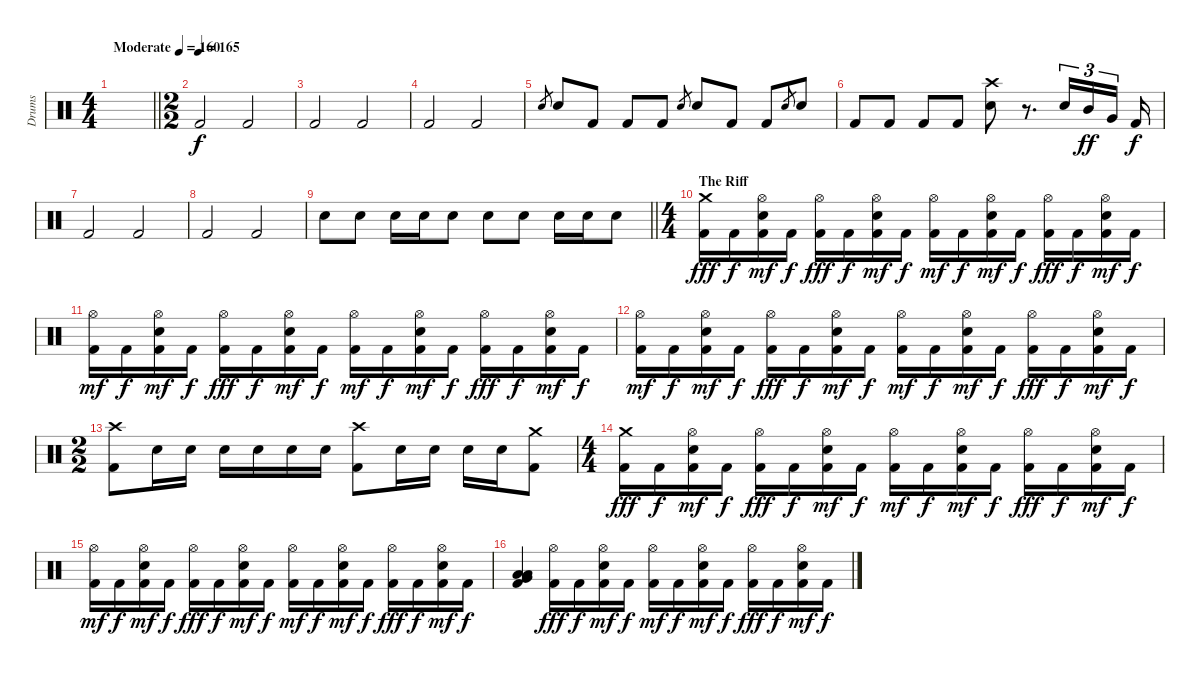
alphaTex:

\track ("Drums" "Drums") {instrument percussion}
\staff {score}
\articulation defaults
\ts (4 4)
\tempo (160 "Moderate")
\clef neutral
\barLineRight lightlight
\ks c
|
\ts (2 2)
\tempo (165)
"Kick (hit) 2".2 "Kick (hit) 2".2 |
"Kick (hit) 2".2 "Kick (hit) 2".2 |
"Kick (hit) 2".2 "Kick (hit) 2".2 |
"Snare (hit) 2".8{gr} "Snare (hit) 2".8 "Kick (hit) 2".8 "Kick (hit) 2".8 "Kick (hit) 2".8 "Snare (hit) 2".8{gr} "Snare (hit) 2".8 "Kick (hit) 2".8 "Kick (hit) 2".8 "Snare (hit) 2".8{gr} "Snare (hit) 2".8 |
"Kick (hit) 2".8 "Kick (hit) 2".8 "Kick (hit) 2".8 "Kick (hit) 2".8 ("Crash high (hit)" "Electric Snare (hit)").8 r.8{d} "Electric Snare (hit)".16{tu (3 2)} "Mid Tom (hit)".16{tu (3 2) dy ff} "Very Low Tom (hit)".16{tu (3 2) beam splitsecondary} "Kick (hit) 2".16{dy f} |
"Kick (hit) 2".2 "Kick (hit) 2".2 |
"Kick (hit) 2".2 "Kick (hit) 2".2 |
\barLineRight lightlight "Electric Snare (hit)".8 "Electric Snare (hit)".8 "Electric Snare (hit)".16 "Electric Snare (hit)".16 "Electric Snare (hit)".8 "Electric Snare (hit)".8 "Electric Snare (hit)".8 "Electric Snare (hit)".16 "Electric Snare (hit)".16 "Electric Snare (hit)".8
|
\ts (4 4)
\section ("" "The Riff")
("Crash medium (hit)" "Kick (hit) 2").16{dy fff} "Kick (hit) 2".16{dy f} ("Hi-Hat (open)" "Electric Snare (hit)" "Kick (hit) 2").16{dy mf} "Kick (hit) 2".16{dy f} ("Hi-Hat (open)" "Kick (hit) 2").16{dy fff} "Kick (hit) 2".16{dy f} ("Hi-Hat (open)" "Electric Snare (hit)" "Kick (hit) 2").16{dy mf} "Kick (hit) 2".16{dy f} ("Hi-Hat (open)" "Kick (hit) 2").16{dy mf} "Kick (hit) 2".16{dy f} ("Hi-Hat (open)" "Electric Snare (hit)" "Kick (hit) 2").16{dy mf} "Kick (hit) 2".16{dy f} ("Hi-Hat (open)" "Kick (hit) 2").16{dy fff} "Kick (hit) 2".16{dy f} ("Hi-Hat (open)" "Electric Snare (hit)" "Kick (hit) 2").16{dy mf} "Kick (hit) 2".16{dy f} |
("Hi-Hat (open)" "Kick (hit) 2").16{dy mf} "Kick (hit) 2".16{dy f} ("Hi-Hat (open)" "Electric Snare (hit)" "Kick (hit) 2").16{dy mf} "Kick (hit) 2".16{dy f} ("Hi-Hat (open)" "Kick (hit) 2").16{dy fff} "Kick (hit) 2".16{dy f} ("Hi-Hat (open)" "Electric Snare (hit)" "Kick (hit) 2").16{dy mf} "Kick (hit) 2".16{dy f} ("Hi-Hat (open)" "Kick (hit) 2").16{dy mf} "Kick (hit) 2".16{dy f} ("Hi-Hat (open)" "Electric Snare (hit)" "Kick (hit) 2").16{dy mf} "Kick (hit) 2".16{dy f} ("Hi-Hat (open)" "Kick (hit) 2").16{dy fff} "Kick (hit) 2".16{dy f} ("Hi-Hat (open)" "Electric Snare (hit)" "Kick (hit) 2").16{dy mf} "Kick (hit) 2".16{dy f} |
("Hi-Hat (open)" "Kick (hit) 2").16{dy mf} "Kick (hit) 2".16{dy f} ("Hi-Hat (open)" "Electric Snare (hit)" "Kick (hit) 2").16{dy mf} "Kick (hit) 2".16{dy f} ("Hi-Hat (open)" "Kick (hit) 2").16{dy fff} "Kick (hit) 2".16{dy f} ("Hi-Hat (open)" "Electric Snare (hit)" "Kick (hit) 2").16{dy mf} "Kick (hit) 2".16{dy f} ("Hi-Hat (open)" "Kick (hit) 2").16{dy mf} "Kick (hit) 2".16{dy f} ("Hi-Hat (open)" "Electric Snare (hit)" "Kick (hit) 2").16{dy mf} "Kick (hit) 2".16{dy f} ("Hi-Hat (open)" "Kick (hit) 2").16{dy fff} "Kick (hit) 2".16{dy f} ("Hi-Hat (open)" "Electric Snare (hit)" "Kick (hit) 2").16{dy mf} "Kick (hit) 2".16{dy f} |
\ts (2 2)
("Crash high (hit)" "Kick (hit) 2").8 "Snare (hit) 2".16 "Snare (hit) 2".16 "Snare (hit) 2".16 "Snare (hit) 2".16 "Snare (hit) 2".16 "Snare (hit) 2".16 ("Crash high (hit)" "Kick (hit) 2").8 "Snare (hit) 2".16 "Snare (hit) 2".16 "Snare (hit) 2".16 "Snare (hit) 2".16 ("Crash medium (hit)" "Kick (hit) 2").8 |
\ts (4 4)
("Crash medium (hit)" "Kick (hit) 2").16{dy fff} "Kick (hit) 2".16{dy f} ("Hi-Hat (open)" "Electric Snare (hit)" "Kick (hit) 2").16{dy mf} "Kick (hit) 2".16{dy f} ("Hi-Hat (open)" "Kick (hit) 2").16{dy fff} "Kick (hit) 2".16{dy f} ("Hi-Hat (open)" "Electric Snare (hit)" "Kick (hit) 2").16{dy mf} "Kick (hit) 2".16{dy f} ("Hi-Hat (open)" "Kick (hit) 2").16{dy mf} "Kick (hit) 2".16{dy f} ("Hi-Hat (open)" "Electric Snare (hit)" "Kick (hit) 2").16{dy mf} "Kick (hit) 2".16{dy f} ("Hi-Hat (open)" "Kick (hit) 2").16{dy fff} "Kick (hit) 2".16{dy f} ("Hi-Hat (open)" "Electric Snare (hit)" "Kick (hit) 2").16{dy mf} "Kick (hit) 2".16{dy f} |
("Hi-Hat (open)" "Kick (hit) 2").16{dy mf} "Kick (hit) 2".16{dy f} ("Hi-Hat (open)" "Electric Snare (hit)" "Kick (hit) 2").16{dy mf} "Kick (hit) 2".16{dy f} ("Hi-Hat (open)" "Kick (hit) 2").16{dy fff} "Kick (hit) 2".16{dy f} ("Hi-Hat (open)" "Electric Snare (hit)" "Kick (hit) 2").16{dy mf} "Kick (hit) 2".16{dy f} ("Hi-Hat (open)" "Kick (hit) 2").16{dy mf} "Kick (hit) 2".16{dy f} ("Hi-Hat (open)" "Electric Snare (hit)" "Kick (hit) 2").16{dy mf} "Kick (hit) 2".16{dy f} ("Hi-Hat (open)" "Kick (hit) 2").16{dy fff} "Kick (hit) 2".16{dy f} ("Hi-Hat (open)" "Electric Snare (hit)" "Kick (hit) 2").16{dy mf} "Kick (hit) 2".16{dy f} |
("Low Floor Tom (hit)" "Low Tom (hit)" "Very Low Tom (hit)" "Kick (hit) 2").4 ("Hi-Hat (open)" "Kick (hit) 2").16{dy fff} "Kick (hit) 2".16{dy f} ("Hi-Hat (open)" "Electric Snare (hit)" "Kick (hit) 2").16{dy mf} "Kick (hit) 2".16{dy f} ("Hi-Hat (open)" "Kick (hit) 2").16{dy mf} "Kick (hit) 2".16{dy f} ("Hi-Hat (open)" "Electric Snare (hit)" "Kick (hit) 2").16{dy mf} "Kick (hit) 2".16{dy f} ("Hi-Hat (open)" "Kick (hit) 2").16{dy fff} "Kick (hit) 2".16{dy f} ("Hi-Hat (open)" "Electric Snare (hit)" "Kick (hit) 2").16{dy mf} "Kick (hit) 2".16{dy f}
